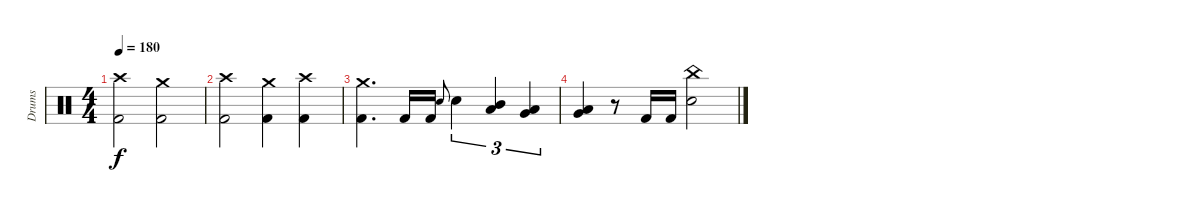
\track ("Drums" "Drums") {instrument percussion}
\staff {score}
\articulation defaults
\ts (4 4)
\tempo 180
\clef neutral
\ks c
("Crash high (hit)" "Kick (hit) 2").2{dy f} ("Crash medium (hit)" "Kick (hit) 2").2 |
("Crash high (hit)" "Kick (hit) 2").2 ("Crash medium (hit)" "Kick (hit) 2").4 ("Crash high (hit)" "Kick (hit) 2").4 |
("Crash medium (hit)" "Kick (hit) 2").4{d} "Kick (hit) 2".16 "Kick (hit) 2".16 "Electric Snare (hit)".8{gr onbeat} "Electric Snare (hit)".4{tu (3 2)} ("Mid Tom (hit)" "Low Tom (hit)").4{tu (3 2)} ("Low Tom (hit)" "Very Low Tom (hit)").4{tu (3 2)} |
("Very Low Tom (hit)" "Low Floor Tom (hit)").4 r.8 "Kick (hit) 2".16 "Kick (hit) 2".16 ("China (hit)" "Electric Snare (hit)").2
